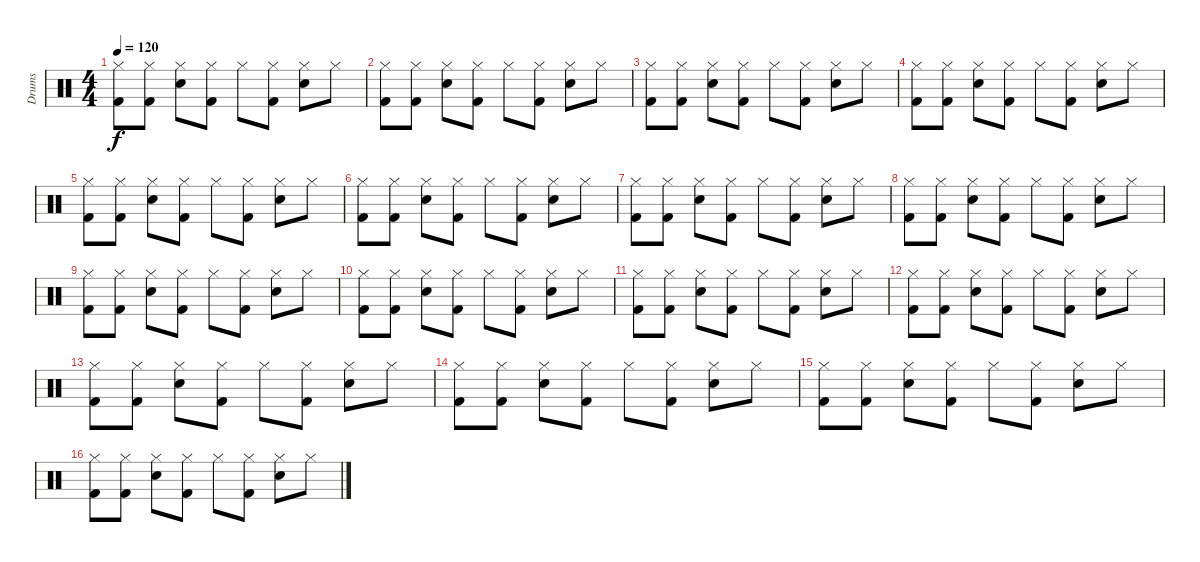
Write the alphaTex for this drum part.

\track ("Drums" "Drums") {instrument percussion}
\staff {score}
\articulation defaults
\ts (4 4)
\tempo 120
\clef neutral
\ks c
("Hi-Hat (closed)" "Kick (hit) 2").8{dy f} ("Hi-Hat (closed)" "Kick (hit) 2").8 ("Hi-Hat (closed)" "Snare (hit) 2").8 ("Hi-Hat (closed)" "Kick (hit) 2").8 "Hi-Hat (closed)".8 ("Hi-Hat (closed)" "Kick (hit) 2").8 ("Hi-Hat (closed)" "Snare (hit) 2").8 "Hi-Hat (closed)".8 |
("Hi-Hat (closed)" "Kick (hit) 2").8 ("Hi-Hat (closed)" "Kick (hit) 2").8 ("Hi-Hat (closed)" "Snare (hit) 2").8 ("Hi-Hat (closed)" "Kick (hit) 2").8 "Hi-Hat (closed)".8 ("Hi-Hat (closed)" "Kick (hit) 2").8 ("Hi-Hat (closed)" "Snare (hit) 2").8 "Hi-Hat (closed)".8 |
("Hi-Hat (closed)" "Kick (hit) 2").8 ("Hi-Hat (closed)" "Kick (hit) 2").8 ("Hi-Hat (closed)" "Snare (hit) 2").8 ("Hi-Hat (closed)" "Kick (hit) 2").8 "Hi-Hat (closed)".8 ("Hi-Hat (closed)" "Kick (hit) 2").8 ("Hi-Hat (closed)" "Snare (hit) 2").8 "Hi-Hat (closed)".8 |
("Hi-Hat (closed)" "Kick (hit) 2").8 ("Hi-Hat (closed)" "Kick (hit) 2").8 ("Hi-Hat (closed)" "Snare (hit) 2").8 ("Hi-Hat (closed)" "Kick (hit) 2").8 "Hi-Hat (closed)".8 ("Hi-Hat (closed)" "Kick (hit) 2").8 ("Hi-Hat (closed)" "Snare (hit) 2").8 "Hi-Hat (closed)".8 |
("Hi-Hat (closed)" "Kick (hit) 2").8 ("Hi-Hat (closed)" "Kick (hit) 2").8 ("Hi-Hat (closed)" "Snare (hit) 2").8 ("Hi-Hat (closed)" "Kick (hit) 2").8 "Hi-Hat (closed)".8 ("Hi-Hat (closed)" "Kick (hit) 2").8 ("Hi-Hat (closed)" "Snare (hit) 2").8 "Hi-Hat (closed)".8 |
("Hi-Hat (closed)" "Kick (hit) 2").8 ("Hi-Hat (closed)" "Kick (hit) 2").8 ("Hi-Hat (closed)" "Snare (hit) 2").8 ("Hi-Hat (closed)" "Kick (hit) 2").8 "Hi-Hat (closed)".8 ("Hi-Hat (closed)" "Kick (hit) 2").8 ("Hi-Hat (closed)" "Snare (hit) 2").8 "Hi-Hat (closed)".8 |
("Hi-Hat (closed)" "Kick (hit) 2").8 ("Hi-Hat (closed)" "Kick (hit) 2").8 ("Hi-Hat (closed)" "Snare (hit) 2").8 ("Hi-Hat (closed)" "Kick (hit) 2").8 "Hi-Hat (closed)".8 ("Hi-Hat (closed)" "Kick (hit) 2").8 ("Hi-Hat (closed)" "Snare (hit) 2").8 "Hi-Hat (closed)".8 |
("Hi-Hat (closed)" "Kick (hit) 2").8 ("Hi-Hat (closed)" "Kick (hit) 2").8 ("Hi-Hat (closed)" "Snare (hit) 2").8 ("Hi-Hat (closed)" "Kick (hit) 2").8 "Hi-Hat (closed)".8 ("Hi-Hat (closed)" "Kick (hit) 2").8 ("Hi-Hat (closed)" "Snare (hit) 2").8 "Hi-Hat (closed)".8 |
("Hi-Hat (closed)" "Kick (hit) 2").8 ("Hi-Hat (closed)" "Kick (hit) 2").8 ("Hi-Hat (closed)" "Snare (hit) 2").8 ("Hi-Hat (closed)" "Kick (hit) 2").8 "Hi-Hat (closed)".8 ("Hi-Hat (closed)" "Kick (hit) 2").8 ("Hi-Hat (closed)" "Snare (hit) 2").8 "Hi-Hat (closed)".8 |
("Hi-Hat (closed)" "Kick (hit) 2").8 ("Hi-Hat (closed)" "Kick (hit) 2").8 ("Hi-Hat (closed)" "Snare (hit) 2").8 ("Hi-Hat (closed)" "Kick (hit) 2").8 "Hi-Hat (closed)".8 ("Hi-Hat (closed)" "Kick (hit) 2").8 ("Hi-Hat (closed)" "Snare (hit) 2").8 "Hi-Hat (closed)".8 |
("Hi-Hat (closed)" "Kick (hit) 2").8 ("Hi-Hat (closed)" "Kick (hit) 2").8 ("Hi-Hat (closed)" "Snare (hit) 2").8 ("Hi-Hat (closed)" "Kick (hit) 2").8 "Hi-Hat (closed)".8 ("Hi-Hat (closed)" "Kick (hit) 2").8 ("Hi-Hat (closed)" "Snare (hit) 2").8 "Hi-Hat (closed)".8 |
("Hi-Hat (closed)" "Kick (hit) 2").8 ("Hi-Hat (closed)" "Kick (hit) 2").8 ("Hi-Hat (closed)" "Snare (hit) 2").8 ("Hi-Hat (closed)" "Kick (hit) 2").8 "Hi-Hat (closed)".8 ("Hi-Hat (closed)" "Kick (hit) 2").8 ("Hi-Hat (closed)" "Snare (hit) 2").8 "Hi-Hat (closed)".8 |
("Hi-Hat (closed)" "Kick (hit) 2").8 ("Hi-Hat (closed)" "Kick (hit) 2").8 ("Hi-Hat (closed)" "Snare (hit) 2").8 ("Hi-Hat (closed)" "Kick (hit) 2").8 "Hi-Hat (closed)".8 ("Hi-Hat (closed)" "Kick (hit) 2").8 ("Hi-Hat (closed)" "Snare (hit) 2").8 "Hi-Hat (closed)".8 |
("Hi-Hat (closed)" "Kick (hit) 2").8 ("Hi-Hat (closed)" "Kick (hit) 2").8 ("Hi-Hat (closed)" "Snare (hit) 2").8 ("Hi-Hat (closed)" "Kick (hit) 2").8 "Hi-Hat (closed)".8 ("Hi-Hat (closed)" "Kick (hit) 2").8 ("Hi-Hat (closed)" "Snare (hit) 2").8 "Hi-Hat (closed)".8 |
("Hi-Hat (closed)" "Kick (hit) 2").8 ("Hi-Hat (closed)" "Kick (hit) 2").8 ("Hi-Hat (closed)" "Snare (hit) 2").8 ("Hi-Hat (closed)" "Kick (hit) 2").8 "Hi-Hat (closed)".8 ("Hi-Hat (closed)" "Kick (hit) 2").8 ("Hi-Hat (closed)" "Snare (hit) 2").8 "Hi-Hat (closed)".8 |
("Hi-Hat (closed)" "Kick (hit) 2").8 ("Hi-Hat (closed)" "Kick (hit) 2").8 ("Hi-Hat (closed)" "Snare (hit) 2").8 ("Hi-Hat (closed)" "Kick (hit) 2").8 "Hi-Hat (closed)".8 ("Hi-Hat (closed)" "Kick (hit) 2").8 ("Hi-Hat (closed)" "Snare (hit) 2").8 "Hi-Hat (closed)".8
